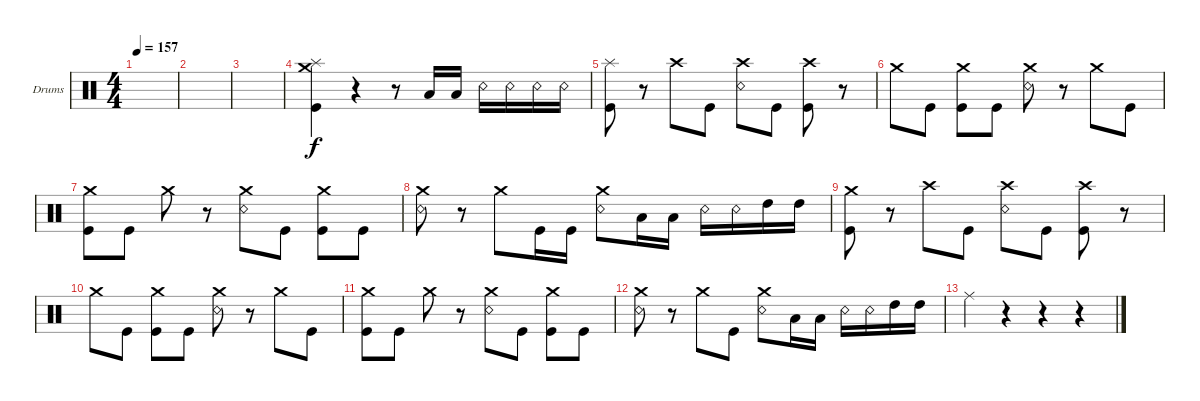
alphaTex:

\defaultSystemsLayout 4
\bracketExtendMode groupsimilarinstruments
\firstSystemTrackNameOrientation horizontal
\otherSystemsTrackNameOrientation horizontal
\track ("Drumkit" "Drums") {instrument percussion}
\staff {score}
\articulation defaults
\ts (4 4)
\tempo 157
\clef neutral
\ks c
|
|
|
("Kick (hit)" "Splash (hit)" "Crash medium (hit)").4 r.4 r.8 "Low Tom (hit)".16 "Low Tom (hit)".16 "Snare (rim shot)".16 "Snare (rim shot)".16 "Snare (rim shot)".16 "Snare (rim shot)".16 |
("Kick (hit)" "Splash (hit)").8 r.8 "Crash high (hit)".8 "Kick (hit)".8 ("Crash high (hit)" "Snare (rim shot)").8 "Kick (hit)".8 ("Crash high (hit)" "Kick (hit)").8 r.8 |
"Crash medium (hit)".8 "Kick (hit)".8 ("Crash medium (hit)" "Kick (hit)").8 "Kick (hit)".8 ("Crash medium (hit)" "Snare (rim shot)").8 r.8 "Crash medium (hit)".8 "Kick (hit)".8 |
("Kick (hit)" "Crash medium (hit)").8 "Kick (hit)".8 "Crash medium (hit)".8 r.8 ("Crash medium (hit)" "Snare (rim shot)").8 "Kick (hit)".8 ("Crash medium (hit)" "Kick (hit)").8 "Kick (hit)".8 |
("Snare (rim shot)" "Crash medium (hit)").8 r.8 "Crash medium (hit)".8 "Kick (hit)".16 "Kick (hit)".16 ("Crash medium (hit)" "Snare (rim shot)").8 "Low Tom (hit)".16 "Low Tom (hit)".16 "Snare (rim shot)".16 "Snare (rim shot)".16 "High Tom (hit)".16 "High Tom (hit)".16 |
("Kick (hit)" "Crash medium (hit)").8 r.8 "Crash high (hit)".8 "Kick (hit)".8 ("Crash high (hit)" "Snare (rim shot)").8 "Kick (hit)".8 ("Crash high (hit)" "Kick (hit)").8 r.8 |
"Crash medium (hit)".8 "Kick (hit)".8 ("Crash medium (hit)" "Kick (hit)").8 "Kick (hit)".8 ("Crash medium (hit)" "Snare (rim shot)").8 r.8 "Crash medium (hit)".8 "Kick (hit)".8 |
("Kick (hit)" "Crash medium (hit)").8 "Kick (hit)".8 "Crash medium (hit)".8 r.8 ("Crash medium (hit)" "Snare (rim shot)").8 "Kick (hit)".8 ("Crash medium (hit)" "Kick (hit)").8 "Kick (hit)".8 |
("Snare (rim shot)" "Crash medium (hit)").8 r.8 "Crash medium (hit)".8 "Kick (hit)".8 ("Crash medium (hit)" "Snare (rim shot)").8 "Low Tom (hit)".16 "Low Tom (hit)".16 "Snare (rim shot)".16 "Snare (rim shot)".16 "High Tom (hit)".16 "High Tom (hit)".16 |
"Ride (middle)".4{dy f} r.4 r.4 r.4
